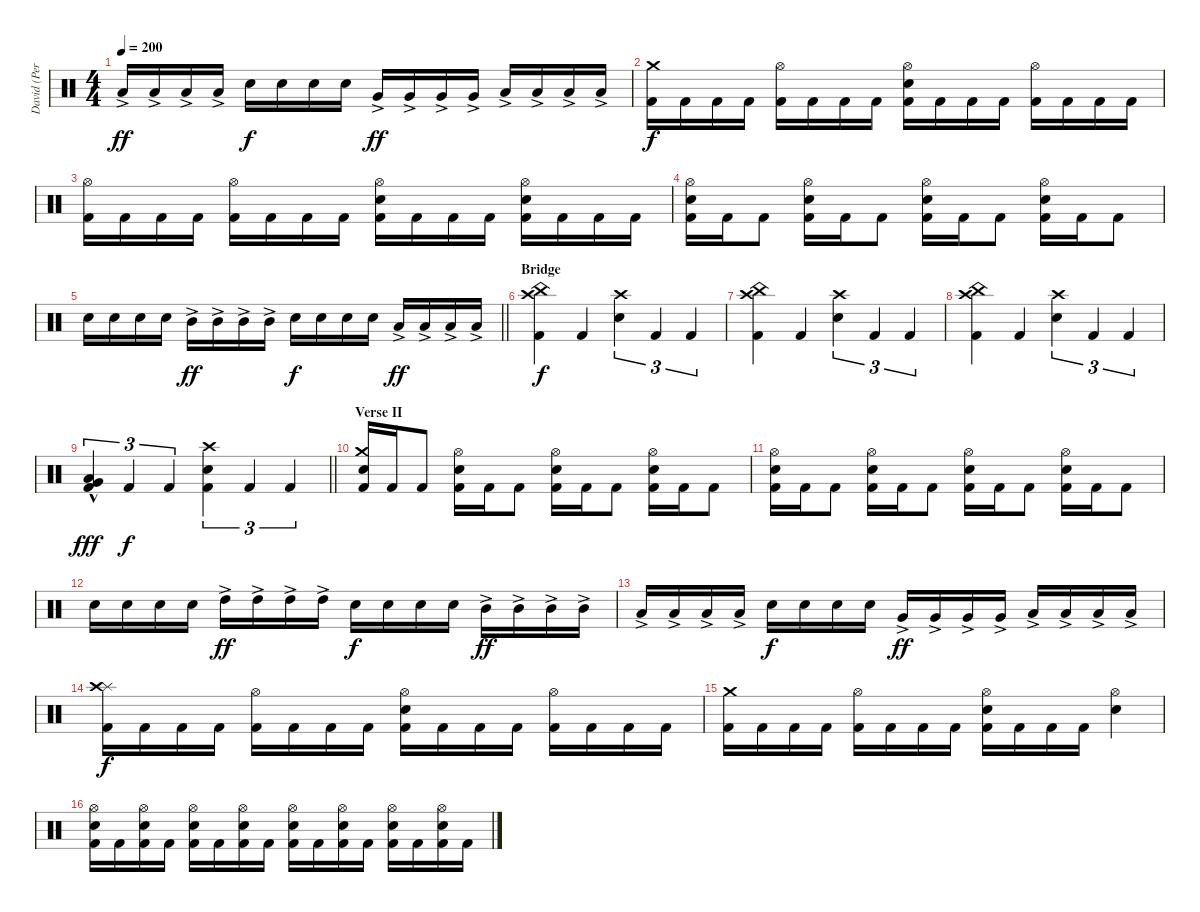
\track ("David (Percussion)" "David (Per") {instrument percussion}
\staff {score}
\articulation defaults
\ts (4 4)
\tempo 200
\clef neutral
\ks c "Low Tom (hit)"{ac}.16{dy ff} "Low Tom (hit)"{ac}.16 "Low Tom (hit)"{ac}.16 "Low Tom (hit)"{ac}.16 "Electric Snare (hit)".16{dy f} "Electric Snare (hit)".16 "Electric Snare (hit)".16 "Electric Snare (hit)".16 "Very Low Tom (hit)"{ac}.16{dy ff} "Very Low Tom (hit)"{ac}.16 "Very Low Tom (hit)"{ac}.16 "Very Low Tom (hit)"{ac}.16 "Low Floor Tom (hit)"{ac}.16 "Low Floor Tom (hit)"{ac}.16 "Low Floor Tom (hit)"{ac}.16 "Low Floor Tom (hit)"{ac}.16
|
("Crash medium (hit)" "Kick (hit) 2").16{dy f} "Kick (hit) 2".16 "Kick (hit) 2".16 "Kick (hit) 2".16 ("Hi-Hat (open)" "Kick (hit) 2").16 "Kick (hit) 2".16 "Kick (hit) 2".16 "Kick (hit) 2".16 ("Hi-Hat (open)" "Electric Snare (hit)" "Kick (hit) 2").16 "Kick (hit) 2".16 "Kick (hit) 2".16 "Kick (hit) 2".16 ("Hi-Hat (open)" "Kick (hit) 2").16 "Kick (hit) 2".16 "Kick (hit) 2".16 "Kick (hit) 2".16 |
("Hi-Hat (open)" "Kick (hit) 2").16 "Kick (hit) 2".16 "Kick (hit) 2".16 "Kick (hit) 2".16 ("Hi-Hat (open)" "Kick (hit) 2").16 "Kick (hit) 2".16 "Kick (hit) 2".16 "Kick (hit) 2".16 ("Hi-Hat (open)" "Electric Snare (hit)" "Kick (hit) 2").16 "Kick (hit) 2".16 "Kick (hit) 2".16 "Kick (hit) 2".16 ("Hi-Hat (open)" "Electric Snare (hit)" "Kick (hit) 2").16 "Kick (hit) 2".16 "Kick (hit) 2".16 "Kick (hit) 2".16 |
("Hi-Hat (open)" "Electric Snare (hit)" "Kick (hit) 2").16 "Kick (hit) 2".16 "Kick (hit) 2".8 ("Hi-Hat (open)" "Electric Snare (hit)" "Kick (hit) 2").16 "Kick (hit) 2".16 "Kick (hit) 2".8 ("Hi-Hat (open)" "Electric Snare (hit)" "Kick (hit) 2").16 "Kick (hit) 2".16 "Kick (hit) 2".8 ("Hi-Hat (open)" "Electric Snare (hit)" "Kick (hit) 2").16 "Kick (hit) 2".16 "Kick (hit) 2".8 |
\barLineRight lightlight "Electric Snare (hit)".16 "Electric Snare (hit)".16 "Electric Snare (hit)".16 "Electric Snare (hit)".16 "Mid Tom (hit)"{ac}.16{dy ff} "Mid Tom (hit)"{ac}.16 "Mid Tom (hit)"{ac}.16 "Mid Tom (hit)"{ac}.16 "Electric Snare (hit)".16{dy f} "Electric Snare (hit)".16 "Electric Snare (hit)".16 "Electric Snare (hit)".16 "Low Tom (hit)"{ac}.16{dy ff} "Low Tom (hit)"{ac}.16 "Low Tom (hit)"{ac}.16 "Low Tom (hit)"{ac}.16
|
\section ("" "Bridge")
("China (hit)" "Crash high (hit)" "Kick (hit) 2").4{dy f} "Kick (hit) 2".4 ("Crash high (hit)" "Electric Snare (hit)").4{tu (3 2)} "Kick (hit) 2".4{tu (3 2)} "Kick (hit) 2".4{tu (3 2)} |
("China (hit)" "Crash high (hit)" "Kick (hit) 2").4 "Kick (hit) 2".4 ("Crash high (hit)" "Electric Snare (hit)").4{tu (3 2)} "Kick (hit) 2".4{tu (3 2)} "Kick (hit) 2".4{tu (3 2)} |
("China (hit)" "Crash high (hit)" "Kick (hit) 2").4 "Kick (hit) 2".4 ("Crash high (hit)" "Electric Snare (hit)").4{tu (3 2)} "Kick (hit) 2".4{tu (3 2)} "Kick (hit) 2".4{tu (3 2)} |
\barLineRight lightlight
("Low Tom (hit)"{hac} "Very Low Tom (hit)"{hac} "Kick (hit) 2").4{tu (3 2) dy fff} "Kick (hit) 2".4{tu (3 2) dy f} "Kick (hit) 2".4{tu (3 2)} ("Crash high (hit)" "Electric Snare (hit)" "Kick (hit) 2").4{tu (3 2)} "Kick (hit) 2".4{tu (3 2)} "Kick (hit) 2".4{tu (3 2)} |
\section ("" "Verse II")
("Crash medium (hit)" "Electric Snare (hit)" "Kick (hit) 2").16 "Kick (hit) 2".16 "Kick (hit) 2".8 ("Hi-Hat (open)" "Electric Snare (hit)" "Kick (hit) 2").16 "Kick (hit) 2".16 "Kick (hit) 2".8 ("Hi-Hat (open)" "Electric Snare (hit)" "Kick (hit) 2").16 "Kick (hit) 2".16 "Kick (hit) 2".8 ("Hi-Hat (open)" "Electric Snare (hit)" "Kick (hit) 2").16 "Kick (hit) 2".16 "Kick (hit) 2".8 |
("Hi-Hat (open)" "Electric Snare (hit)" "Kick (hit) 2").16 "Kick (hit) 2".16 "Kick (hit) 2".8 ("Hi-Hat (open)" "Electric Snare (hit)" "Kick (hit) 2").16 "Kick (hit) 2".16 "Kick (hit) 2".8 ("Hi-Hat (open)" "Electric Snare (hit)" "Kick (hit) 2").16 "Kick (hit) 2".16 "Kick (hit) 2".8 ("Hi-Hat (open)" "Electric Snare (hit)" "Kick (hit) 2").16 "Kick (hit) 2".16 "Kick (hit) 2".8 |
"Electric Snare (hit)".16 "Electric Snare (hit)".16 "Electric Snare (hit)".16 "Electric Snare (hit)".16 "High Tom (hit)"{ac}.16{dy ff} "High Tom (hit)"{ac}.16 "High Tom (hit)"{ac}.16 "High Tom (hit)"{ac}.16 "Electric Snare (hit)".16{dy f} "Electric Snare (hit)".16 "Electric Snare (hit)".16 "Electric Snare (hit)".16 "Mid Tom (hit)"{ac}.16{dy ff} "Mid Tom (hit)"{ac}.16 "Mid Tom (hit)"{ac}.16 "Mid Tom (hit)"{ac}.16 |
"Low Tom (hit)"{ac}.16 "Low Tom (hit)"{ac}.16 "Low Tom (hit)"{ac}.16 "Low Tom (hit)"{ac}.16 "Electric Snare (hit)".16{dy f} "Electric Snare (hit)".16 "Electric Snare (hit)".16 "Electric Snare (hit)".16 "Very Low Tom (hit)"{ac}.16{dy ff} "Very Low Tom (hit)"{ac}.16 "Very Low Tom (hit)"{ac}.16 "Very Low Tom (hit)"{ac}.16 "Low Floor Tom (hit)"{ac}.16 "Low Floor Tom (hit)"{ac}.16 "Low Floor Tom (hit)"{ac}.16 "Low Floor Tom (hit)"{ac}.16 |
("Splash (hit)" "Crash high (hit)" "Kick (hit) 2").16{dy f} "Kick (hit) 2".16 "Kick (hit) 2".16 "Kick (hit) 2".16 ("Hi-Hat (open)" "Kick (hit) 2").16 "Kick (hit) 2".16 "Kick (hit) 2".16 "Kick (hit) 2".16 ("Hi-Hat (open)" "Electric Snare (hit)" "Kick (hit) 2").16 "Kick (hit) 2".16 "Kick (hit) 2".16 "Kick (hit) 2".16 ("Hi-Hat (open)" "Kick (hit) 2").16 "Kick (hit) 2".16 "Kick (hit) 2".16 "Kick (hit) 2".16 |
("Crash medium (hit)" "Kick (hit) 2").16 "Kick (hit) 2".16 "Kick (hit) 2".16 "Kick (hit) 2".16 ("Hi-Hat (open)" "Kick (hit) 2").16 "Kick (hit) 2".16 "Kick (hit) 2".16 "Kick (hit) 2".16 ("Hi-Hat (open)" "Electric Snare (hit)" "Kick (hit) 2").16 "Kick (hit) 2".16 "Kick (hit) 2".16 "Kick (hit) 2".16 ("Hi-Hat (open)" "Electric Snare (hit)").4 |
("Hi-Hat (open)" "Electric Snare (hit)" "Kick (hit) 2").16 "Kick (hit) 2".16 ("Hi-Hat (open)" "Electric Snare (hit)" "Kick (hit) 2").16 "Kick (hit) 2".16 ("Hi-Hat (open)" "Electric Snare (hit)" "Kick (hit) 2").16 "Kick (hit) 2".16 ("Hi-Hat (open)" "Electric Snare (hit)" "Kick (hit) 2").16 "Kick (hit) 2".16 ("Hi-Hat (open)" "Electric Snare (hit)" "Kick (hit) 2").16 "Kick (hit) 2".16 ("Hi-Hat (open)" "Electric Snare (hit)" "Kick (hit) 2").16 "Kick (hit) 2".16 ("Hi-Hat (open)" "Electric Snare (hit)" "Kick (hit) 2").16 "Kick (hit) 2".16 ("Hi-Hat (open)" "Electric Snare (hit)" "Kick (hit) 2").16 "Kick (hit) 2".16
